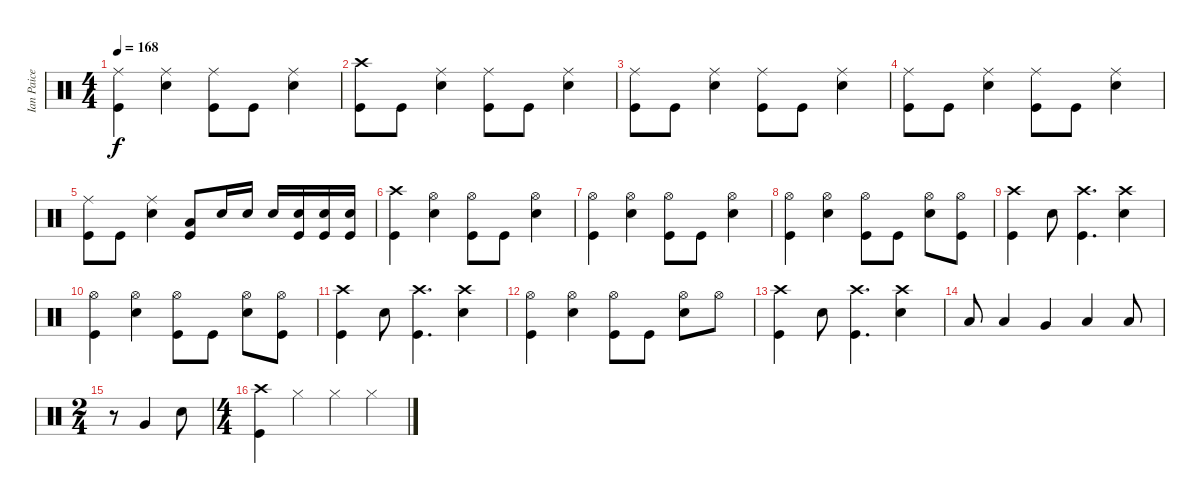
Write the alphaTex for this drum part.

\track ("Ian Paice" "Ian Paice") {instrument percussion}
\staff {score}
\articulation defaults
\ts (4 4)
\tempo 168
\clef neutral
\ks c
("Kick (hit)" "Ride (middle)").4{dy f} ("Ride (middle)" "Snare (hit) 2").4 ("Ride (middle)" "Kick (hit)").8 "Kick (hit)".8 ("Ride (middle)" "Snare (hit) 2").4 |
("Kick (hit)" "Crash high (hit)").8 "Kick (hit)".8 ("Snare (hit) 2" "Ride (middle)").4 ("Kick (hit)" "Ride (middle)").8 "Kick (hit)".8 ("Snare (hit) 2" "Ride (middle)").4 |
("Ride (middle)" "Kick (hit)").8 "Kick (hit)".8 ("Snare (hit) 2" "Ride (middle)").4 ("Ride (middle)" "Kick (hit)").8 "Kick (hit)".8 ("Ride (middle)" "Snare (hit) 2").4 |
("Ride (middle)" "Kick (hit)").8 "Kick (hit)".8 ("Snare (hit) 2" "Ride (middle)").4 ("Ride (middle)" "Kick (hit)").8 "Kick (hit)".8 ("Ride (middle)" "Snare (hit) 2").4 |
("Ride (middle)" "Kick (hit)").8 "Kick (hit)".8 ("Snare (hit) 2" "Ride (middle)").4 ("Kick (hit)" "Low Tom (hit)").8 "Snare (hit) 2".16 "Snare (hit) 2".16 "Snare (hit) 2".16 ("Snare (hit) 2" "Kick (hit)").16 ("Snare (hit) 2" "Kick (hit)").16 ("Snare (hit) 2" "Kick (hit)").16 |
("Crash high (hit)" "Kick (hit)").4 ("Hi-Hat (open)" "Snare (hit) 2").4 ("Hi-Hat (open)" "Kick (hit)").8 "Kick (hit)".8 ("Snare (hit) 2" "Hi-Hat (open)").4 |
("Hi-Hat (open)" "Kick (hit)").4 ("Hi-Hat (open)" "Snare (hit) 2").4 ("Hi-Hat (open)" "Kick (hit)").8 "Kick (hit)".8 ("Snare (hit) 2" "Hi-Hat (open)").4 |
("Hi-Hat (open)" "Kick (hit)").4 ("Hi-Hat (open)" "Snare (hit) 2").4 ("Hi-Hat (open)" "Kick (hit)").8 "Kick (hit)".8 ("Snare (hit) 2" "Hi-Hat (open)").8 ("Hi-Hat (open)" "Kick (hit)").8 |
("Kick (hit)" "Crash high (hit)").4 "Snare (hit) 2".8 ("Crash high (hit)" "Kick (hit)").4{d} ("Snare (hit) 2" "Crash high (hit)").4 |
("Hi-Hat (open)" "Kick (hit)").4 ("Hi-Hat (open)" "Snare (hit) 2").4 ("Hi-Hat (open)" "Kick (hit)").8 "Kick (hit)".8 ("Snare (hit) 2" "Hi-Hat (open)").8 ("Hi-Hat (open)" "Kick (hit)").8 |
("Kick (hit)" "Crash high (hit)").4 "Snare (hit) 2".8 ("Crash high (hit)" "Kick (hit)").4{d} ("Crash high (hit)" "Snare (hit) 2").4 |
("Kick (hit)" "Hi-Hat (open)").4 ("Snare (hit) 2" "Hi-Hat (open)").4 ("Kick (hit)" "Hi-Hat (open)").8 "Kick (hit)".8 ("Hi-Hat (open)" "Snare (hit) 2").8 "Hi-Hat (open)".8 |
("Kick (hit)" "Crash high (hit)").4 "Snare (hit) 2".8 ("Crash high (hit)" "Kick (hit)").4{d} ("Crash high (hit)" "Snare (hit) 2").4 |
"Low Tom (hit)".8 "Low Tom (hit)".4 "Very Low Tom (hit)".4 "Low Tom (hit)".4 "Low Tom (hit)".8 |
\ts (2 4)
r.8 "Very Low Tom (hit)".4 "Snare (hit) 2".8 |
\ts (4 4)
("Crash high (hit)" "Kick (hit)").4 "Hi-Hat (closed)".4 "Hi-Hat (closed)".4 "Hi-Hat (closed)".4
